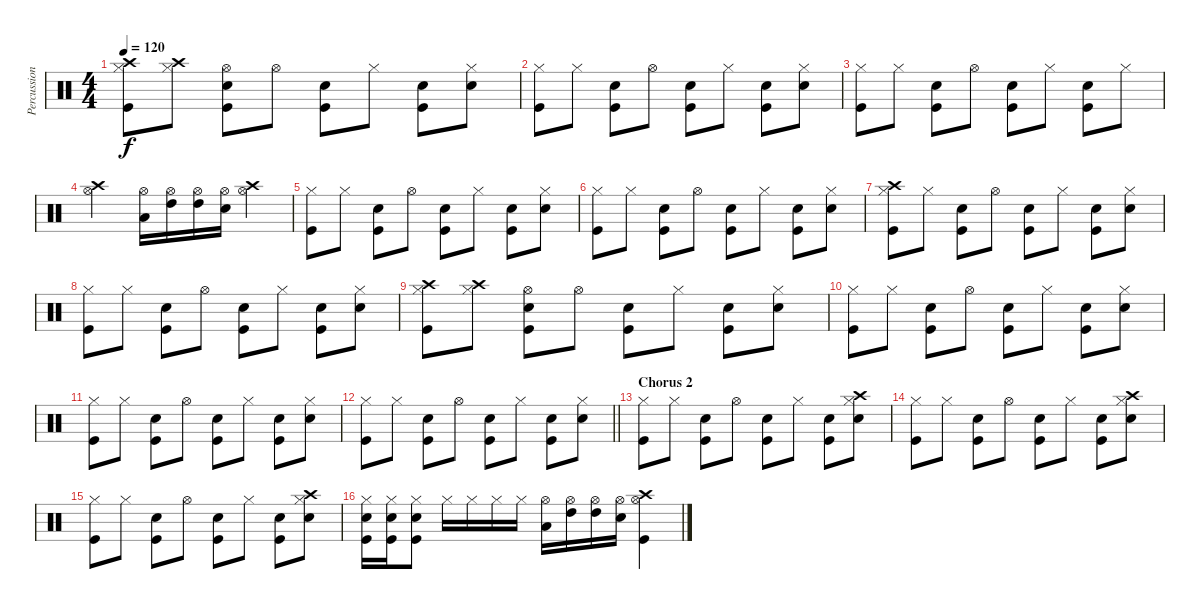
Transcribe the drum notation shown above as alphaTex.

\track ("Percussion" "Percussion") {instrument percussion}
\staff {score}
\articulation defaults
\ts (4 4)
\tempo 120
\clef neutral
\ks c
("Hi-Hat (closed)" "Crash high (hit)" "Kick (hit)").8{dy f} ("Hi-Hat (closed)" "Crash high (hit)").8 ("Hi-Hat (open)" "Electric Snare (hit)" "Kick (hit)").8 "Hi-Hat (open)".8 ("Electric Snare (hit)" "Kick (hit)").8 "Hi-Hat (closed)".8 ("Electric Snare (hit)" "Kick (hit)").8 ("Hi-Hat (closed)" "Snare (hit) 2").8 |
("Hi-Hat (closed)" "Kick (hit)").8 "Hi-Hat (closed)".8 ("Electric Snare (hit)" "Kick (hit)").8 "Hi-Hat (open)".8 ("Electric Snare (hit)" "Kick (hit)").8 "Hi-Hat (closed)".8 ("Electric Snare (hit)" "Kick (hit)").8 ("Hi-Hat (closed)" "Snare (hit) 2").8 |
("Hi-Hat (closed)" "Kick (hit)").8 "Hi-Hat (closed)".8 ("Electric Snare (hit)" "Kick (hit)").8 "Hi-Hat (open)".8 ("Electric Snare (hit)" "Kick (hit)").8 "Hi-Hat (closed)".8 ("Electric Snare (hit)" "Kick (hit)").8 "Hi-Hat (closed)".8 |
("Crash high (hit)" "Hi-Hat (open)").2 ("Hi-Hat (open)" "Low Tom (hit)").16 ("Hi-Hat (open)" "High Tom (hit)").16 ("Hi-Hat (open)" "High Tom (hit)").16 ("Hi-Hat (open)" "Snare (hit) 2").16 ("Crash high (hit)" "Hi-Hat (open)").4 |
("Hi-Hat (closed)" "Kick (hit)").8 "Hi-Hat (closed)".8 ("Electric Snare (hit)" "Kick (hit)").8 "Hi-Hat (open)".8 ("Electric Snare (hit)" "Kick (hit)").8 "Hi-Hat (closed)".8 ("Electric Snare (hit)" "Kick (hit)").8 ("Hi-Hat (closed)" "Snare (hit) 2").8 |
("Hi-Hat (closed)" "Kick (hit)").8 "Hi-Hat (closed)".8 ("Electric Snare (hit)" "Kick (hit)").8 "Hi-Hat (open)".8 ("Electric Snare (hit)" "Kick (hit)").8 "Hi-Hat (closed)".8 ("Electric Snare (hit)" "Kick (hit)").8 ("Hi-Hat (closed)" "Snare (hit) 2").8 |
("Hi-Hat (closed)" "Crash high (hit)" "Kick (hit)").8 "Hi-Hat (closed)".8 ("Electric Snare (hit)" "Kick (hit)").8 "Hi-Hat (open)".8 ("Electric Snare (hit)" "Kick (hit)").8 "Hi-Hat (closed)".8 ("Electric Snare (hit)" "Kick (hit)").8 ("Hi-Hat (closed)" "Snare (hit) 2").8 |
("Hi-Hat (closed)" "Kick (hit)").8 "Hi-Hat (closed)".8 ("Electric Snare (hit)" "Kick (hit)").8 "Hi-Hat (open)".8 ("Electric Snare (hit)" "Kick (hit)").8 "Hi-Hat (closed)".8 ("Electric Snare (hit)" "Kick (hit)").8 ("Hi-Hat (closed)" "Snare (hit) 2").8 |
("Hi-Hat (closed)" "Crash high (hit)" "Kick (hit)").8 ("Hi-Hat (closed)" "Crash high (hit)").8 ("Hi-Hat (open)" "Electric Snare (hit)" "Kick (hit)").8 "Hi-Hat (open)".8 ("Electric Snare (hit)" "Kick (hit)").8 "Hi-Hat (closed)".8 ("Electric Snare (hit)" "Kick (hit)").8 ("Hi-Hat (closed)" "Snare (hit) 2").8 |
("Hi-Hat (closed)" "Kick (hit)").8 "Hi-Hat (closed)".8 ("Electric Snare (hit)" "Kick (hit)").8 "Hi-Hat (open)".8 ("Electric Snare (hit)" "Kick (hit)").8 "Hi-Hat (closed)".8 ("Electric Snare (hit)" "Kick (hit)").8 ("Hi-Hat (closed)" "Snare (hit) 2").8 |
("Hi-Hat (closed)" "Kick (hit)").8 "Hi-Hat (closed)".8 ("Electric Snare (hit)" "Kick (hit)").8 "Hi-Hat (open)".8 ("Electric Snare (hit)" "Kick (hit)").8 "Hi-Hat (closed)".8 ("Electric Snare (hit)" "Kick (hit)").8 ("Hi-Hat (closed)" "Snare (hit) 2").8 |
\barLineRight lightlight
("Hi-Hat (closed)" "Kick (hit)").8 "Hi-Hat (closed)".8 ("Electric Snare (hit)" "Kick (hit)").8 "Hi-Hat (open)".8 ("Electric Snare (hit)" "Kick (hit)").8 "Hi-Hat (closed)".8 ("Electric Snare (hit)" "Kick (hit)").8 ("Hi-Hat (closed)" "Snare (hit) 2").8 |
\section ("" "Chorus 2")
("Hi-Hat (closed)" "Kick (hit)").8 "Hi-Hat (closed)".8 ("Electric Snare (hit)" "Kick (hit)").8 "Hi-Hat (open)".8 ("Electric Snare (hit)" "Kick (hit)").8 "Hi-Hat (closed)".8 ("Electric Snare (hit)" "Kick (hit)").8 ("Hi-Hat (closed)" "Crash high (hit)" "Snare (hit) 2").8 |
("Hi-Hat (closed)" "Kick (hit)").8 "Hi-Hat (closed)".8 ("Electric Snare (hit)" "Kick (hit)").8 "Hi-Hat (open)".8 ("Electric Snare (hit)" "Kick (hit)").8 "Hi-Hat (closed)".8 ("Electric Snare (hit)" "Kick (hit)").8 ("Hi-Hat (closed)" "Crash high (hit)" "Snare (hit) 2").8 |
("Hi-Hat (closed)" "Kick (hit)").8 "Hi-Hat (closed)".8 ("Electric Snare (hit)" "Kick (hit)").8 "Hi-Hat (open)".8 ("Electric Snare (hit)" "Kick (hit)").8 "Hi-Hat (closed)".8 ("Electric Snare (hit)" "Kick (hit)").8 ("Hi-Hat (closed)" "Crash high (hit)" "Snare (hit) 2").8 |
("Hi-Hat (closed)" "Snare (hit) 2" "Kick (hit)").16 ("Hi-Hat (closed)" "Snare (hit) 2" "Kick (hit)").16 ("Hi-Hat (closed)" "Snare (hit) 2" "Kick (hit)").8 "Hi-Hat (closed)".16 "Hi-Hat (closed)".16 "Hi-Hat (closed)".16 "Hi-Hat (closed)".16 ("Hi-Hat (open)" "Low Tom (hit)").16 ("Hi-Hat (open)" "High Tom (hit)").16 ("Hi-Hat (open)" "High Tom (hit)").16 ("Hi-Hat (open)" "Snare (hit) 2").16 ("Hi-Hat (open)" "Crash high (hit)" "Kick (hit)").4
